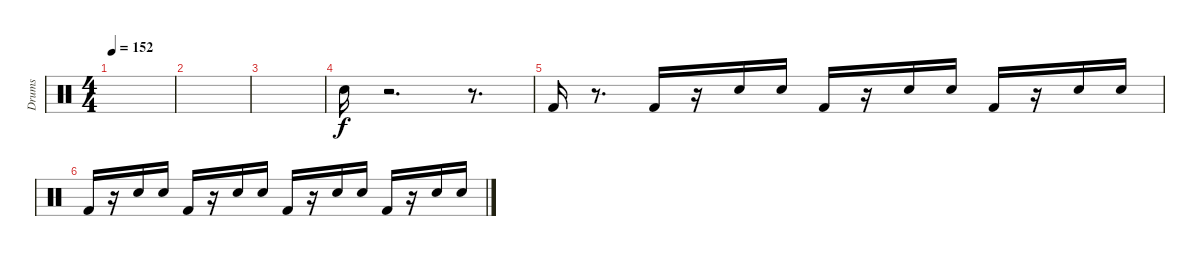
\track ("Drums               " "Drums     ") {instrument percussion}
\staff {score}
\articulation defaults
\ts (4 4)
\tempo 152
\clef neutral
\ks c
|
|
|
"Snare (hit) 2".16 r.2{d} r.8{d} |
"Kick (hit) 2".16 r.8{d} "Kick (hit) 2".16 r.16 "Snare (hit) 2".16 "Snare (hit) 2".16 "Kick (hit) 2".16 r.16 "Snare (hit) 2".16 "Snare (hit) 2".16 "Kick (hit) 2".16 r.16 "Snare (hit) 2".16 "Snare (hit) 2".16 |
"Kick (hit) 2".16 r.16 "Snare (hit) 2".16 "Snare (hit) 2".16 "Kick (hit) 2".16 r.16 "Snare (hit) 2".16 "Snare (hit) 2".16 "Kick (hit) 2".16 r.16 "Snare (hit) 2".16 "Snare (hit) 2".16 "Kick (hit) 2".16 r.16 "Snare (hit) 2".16 "Snare (hit) 2".16
